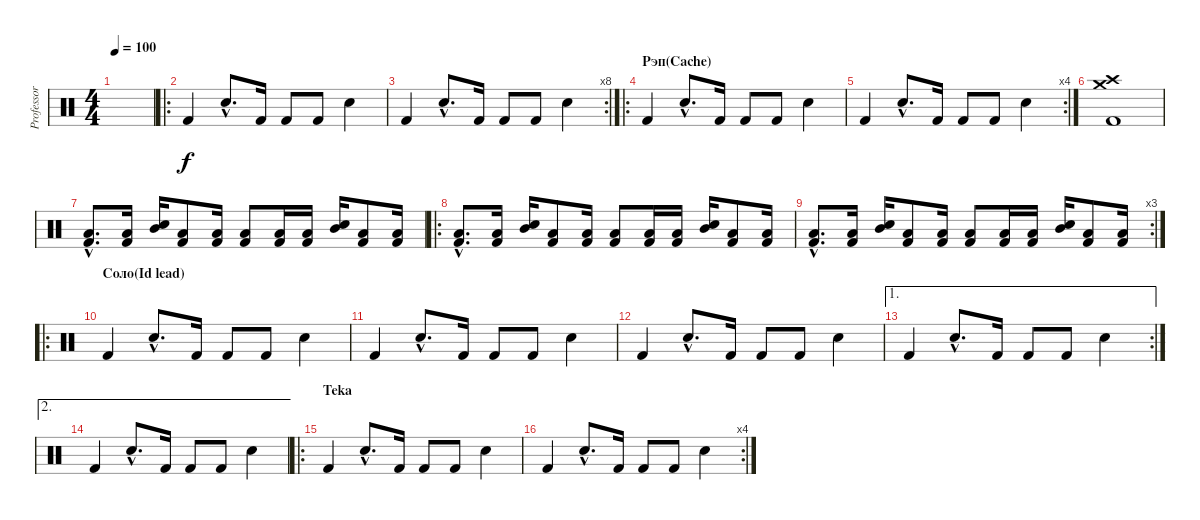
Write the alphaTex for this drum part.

\track ("Professor" "Professor") {instrument percussion}
\staff {score}
\articulation defaults
\ts (4 4)
\tempo 100
\clef neutral
\ks c
|
\ro "Kick (hit) 2".4 "Electric Snare (hit)"{hac}.8{d} "Kick (hit) 2".16 "Kick (hit) 2".8 "Kick (hit) 2".8 "Electric Snare (hit)".4
|
\rc 8 "Kick (hit) 2".4 "Electric Snare (hit)"{hac}.8{d} "Kick (hit) 2".16 "Kick (hit) 2".8 "Kick (hit) 2".8 "Electric Snare (hit)".4
|
\ro
\section ("" "Рэп(Cache)")
"Kick (hit) 2".4 "Electric Snare (hit)"{hac}.8{d} "Kick (hit) 2".16 "Kick (hit) 2".8 "Kick (hit) 2".8 "Electric Snare (hit)".4 |
\rc 4 "Kick (hit) 2".4 "Electric Snare (hit)"{hac}.8{d} "Kick (hit) 2".16 "Kick (hit) 2".8 "Kick (hit) 2".8 "Electric Snare (hit)".4
|
("Kick (hit) 2" "Crash medium (hit)" "Crash high (hit)").1 |
("Kick (hit) 2"{hac} "Low Tom (hit)"{hac}).8{d} ("Kick (hit) 2" "Low Tom (hit)").16 ("Electric Snare (hit)" "Mid Tom (hit)").16 ("Kick (hit) 2" "Low Tom (hit)").8 ("Kick (hit) 2" "Low Tom (hit)").16 ("Kick (hit) 2" "Low Tom (hit)").8 ("Kick (hit) 2" "Low Tom (hit)").16 ("Kick (hit) 2" "Low Tom (hit)").16 ("Electric Snare (hit)" "Mid Tom (hit)").16 ("Kick (hit) 2" "Low Tom (hit)").8 ("Kick (hit) 2" "Low Tom (hit)").16 |
\ro
("Kick (hit) 2"{hac} "Low Tom (hit)"{hac}).8{d} ("Kick (hit) 2" "Low Tom (hit)").16 ("Electric Snare (hit)" "Mid Tom (hit)").16 ("Kick (hit) 2" "Low Tom (hit)").8 ("Kick (hit) 2" "Low Tom (hit)").16 ("Kick (hit) 2" "Low Tom (hit)").8 ("Kick (hit) 2" "Low Tom (hit)").16 ("Kick (hit) 2" "Low Tom (hit)").16 ("Electric Snare (hit)" "Mid Tom (hit)").16 ("Kick (hit) 2" "Low Tom (hit)").8 ("Kick (hit) 2" "Low Tom (hit)").16 |
\rc 3
("Kick (hit) 2"{hac} "Low Tom (hit)"{hac}).8{d} ("Kick (hit) 2" "Low Tom (hit)").16 ("Electric Snare (hit)" "Mid Tom (hit)").16 ("Kick (hit) 2" "Low Tom (hit)").8 ("Kick (hit) 2" "Low Tom (hit)").16 ("Kick (hit) 2" "Low Tom (hit)").8 ("Kick (hit) 2" "Low Tom (hit)").16 ("Kick (hit) 2" "Low Tom (hit)").16 ("Electric Snare (hit)" "Mid Tom (hit)").16 ("Kick (hit) 2" "Low Tom (hit)").8 ("Kick (hit) 2" "Low Tom (hit)").16 |
\ro
\section ("" "Соло(Id lead)")
"Kick (hit) 2".4 "Electric Snare (hit)"{hac}.8{d} "Kick (hit) 2".16 "Kick (hit) 2".8 "Kick (hit) 2".8 "Electric Snare (hit)".4 |
"Kick (hit) 2".4 "Electric Snare (hit)"{hac}.8{d} "Kick (hit) 2".16 "Kick (hit) 2".8 "Kick (hit) 2".8 "Electric Snare (hit)".4 |
"Kick (hit) 2".4 "Electric Snare (hit)"{hac}.8{d} "Kick (hit) 2".16 "Kick (hit) 2".8 "Kick (hit) 2".8 "Electric Snare (hit)".4 |
\ae 1
\rc 2 "Kick (hit) 2".4 "Electric Snare (hit)"{hac}.8{d} "Kick (hit) 2".16 "Kick (hit) 2".8 "Kick (hit) 2".8 "Electric Snare (hit)".4
|
\ae 2 "Kick (hit) 2".4 "Electric Snare (hit)"{hac}.8{d} "Kick (hit) 2".16 "Kick (hit) 2".8 "Kick (hit) 2".8 "Electric Snare (hit)".4
|
\ro
\section ("" "Teka")
"Kick (hit) 2".4 "Electric Snare (hit)"{hac}.8{d} "Kick (hit) 2".16 "Kick (hit) 2".8 "Kick (hit) 2".8 "Electric Snare (hit)".4 |
\rc 4 "Kick (hit) 2".4 "Electric Snare (hit)"{hac}.8{d} "Kick (hit) 2".16 "Kick (hit) 2".8 "Kick (hit) 2".8 "Electric Snare (hit)".4
